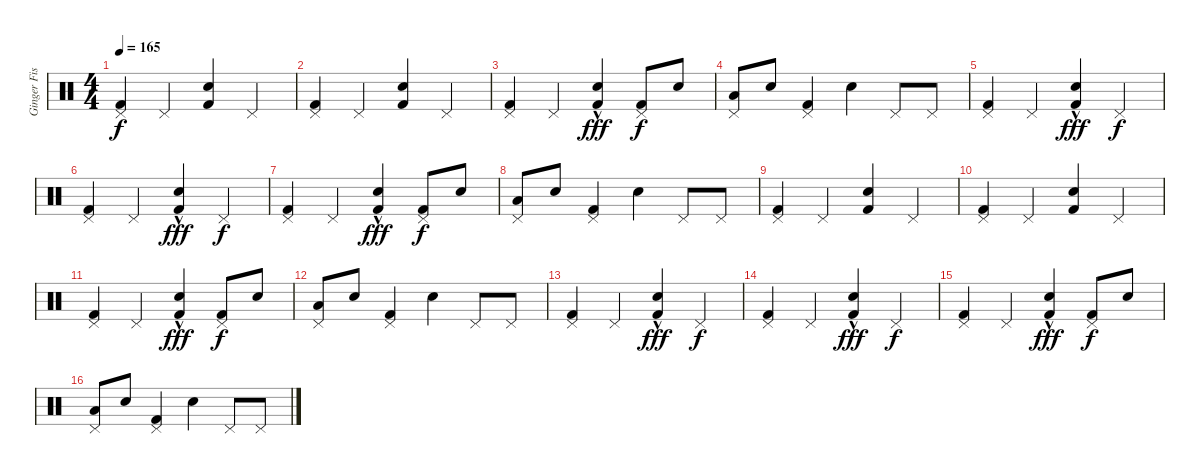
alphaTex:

\track ("Ginger Fish" "Ginger Fis") {instrument percussion}
\staff {score}
\articulation defaults
\ts (4 4)
\tempo 165
\clef neutral
\ks c
("Pedal Hi-Hat (hit)" "Kick (hit) 2").4{dy f} "Pedal Hi-Hat (hit)".4 ("Electric Snare (hit)" "Kick (hit) 2").4 "Pedal Hi-Hat (hit)".4 |
("Pedal Hi-Hat (hit)" "Kick (hit) 2").4 "Pedal Hi-Hat (hit)".4 ("Electric Snare (hit)" "Kick (hit) 2").4 "Pedal Hi-Hat (hit)".4 |
("Pedal Hi-Hat (hit)" "Kick (hit) 2").4 "Pedal Hi-Hat (hit)".4 ("Electric Snare (hit)"{hac} "Kick (hit) 2").4{dy fff} ("Pedal Hi-Hat (hit)" "Kick (hit) 2").8{dy f} "Electric Snare (hit)".8 |
("Pedal Hi-Hat (hit)" "Low Tom (hit)").8 "Electric Snare (hit)".8 ("Pedal Hi-Hat (hit)" "Kick (hit) 2").4 "Electric Snare (hit)".4 "Pedal Hi-Hat (hit)".8 "Pedal Hi-Hat (hit)".8 |
("Pedal Hi-Hat (hit)" "Kick (hit) 2").4 "Pedal Hi-Hat (hit)".4 ("Electric Snare (hit)"{hac} "Kick (hit) 2").4{dy fff} "Pedal Hi-Hat (hit)".4{dy f} |
("Pedal Hi-Hat (hit)" "Kick (hit) 2").4 "Pedal Hi-Hat (hit)".4 ("Electric Snare (hit)"{hac} "Kick (hit) 2").4{dy fff} "Pedal Hi-Hat (hit)".4{dy f} |
("Pedal Hi-Hat (hit)" "Kick (hit) 2").4 "Pedal Hi-Hat (hit)".4 ("Electric Snare (hit)"{hac} "Kick (hit) 2").4{dy fff} ("Pedal Hi-Hat (hit)" "Kick (hit) 2").8{dy f} "Electric Snare (hit)".8 |
("Pedal Hi-Hat (hit)" "Low Tom (hit)").8 "Electric Snare (hit)".8 ("Pedal Hi-Hat (hit)" "Kick (hit) 2").4 "Electric Snare (hit)".4 "Pedal Hi-Hat (hit)".8 "Pedal Hi-Hat (hit)".8 |
("Pedal Hi-Hat (hit)" "Kick (hit) 2").4 "Pedal Hi-Hat (hit)".4 ("Electric Snare (hit)" "Kick (hit) 2").4 "Pedal Hi-Hat (hit)".4 |
("Pedal Hi-Hat (hit)" "Kick (hit) 2").4 "Pedal Hi-Hat (hit)".4 ("Electric Snare (hit)" "Kick (hit) 2").4 "Pedal Hi-Hat (hit)".4 |
("Pedal Hi-Hat (hit)" "Kick (hit) 2").4 "Pedal Hi-Hat (hit)".4 ("Electric Snare (hit)"{hac} "Kick (hit) 2").4{dy fff} ("Pedal Hi-Hat (hit)" "Kick (hit) 2").8{dy f} "Electric Snare (hit)".8 |
("Pedal Hi-Hat (hit)" "Low Tom (hit)").8 "Electric Snare (hit)".8 ("Pedal Hi-Hat (hit)" "Kick (hit) 2").4 "Electric Snare (hit)".4 "Pedal Hi-Hat (hit)".8 "Pedal Hi-Hat (hit)".8 |
("Pedal Hi-Hat (hit)" "Kick (hit) 2").4 "Pedal Hi-Hat (hit)".4 ("Electric Snare (hit)"{hac} "Kick (hit) 2").4{dy fff} "Pedal Hi-Hat (hit)".4{dy f} |
("Pedal Hi-Hat (hit)" "Kick (hit) 2").4 "Pedal Hi-Hat (hit)".4 ("Electric Snare (hit)"{hac} "Kick (hit) 2").4{dy fff} "Pedal Hi-Hat (hit)".4{dy f} |
("Pedal Hi-Hat (hit)" "Kick (hit) 2").4 "Pedal Hi-Hat (hit)".4 ("Electric Snare (hit)"{hac} "Kick (hit) 2").4{dy fff} ("Pedal Hi-Hat (hit)" "Kick (hit) 2").8{dy f} "Electric Snare (hit)".8 |
("Pedal Hi-Hat (hit)" "Low Tom (hit)").8 "Electric Snare (hit)".8 ("Pedal Hi-Hat (hit)" "Kick (hit) 2").4 "Electric Snare (hit)".4 "Pedal Hi-Hat (hit)".8 "Pedal Hi-Hat (hit)".8
